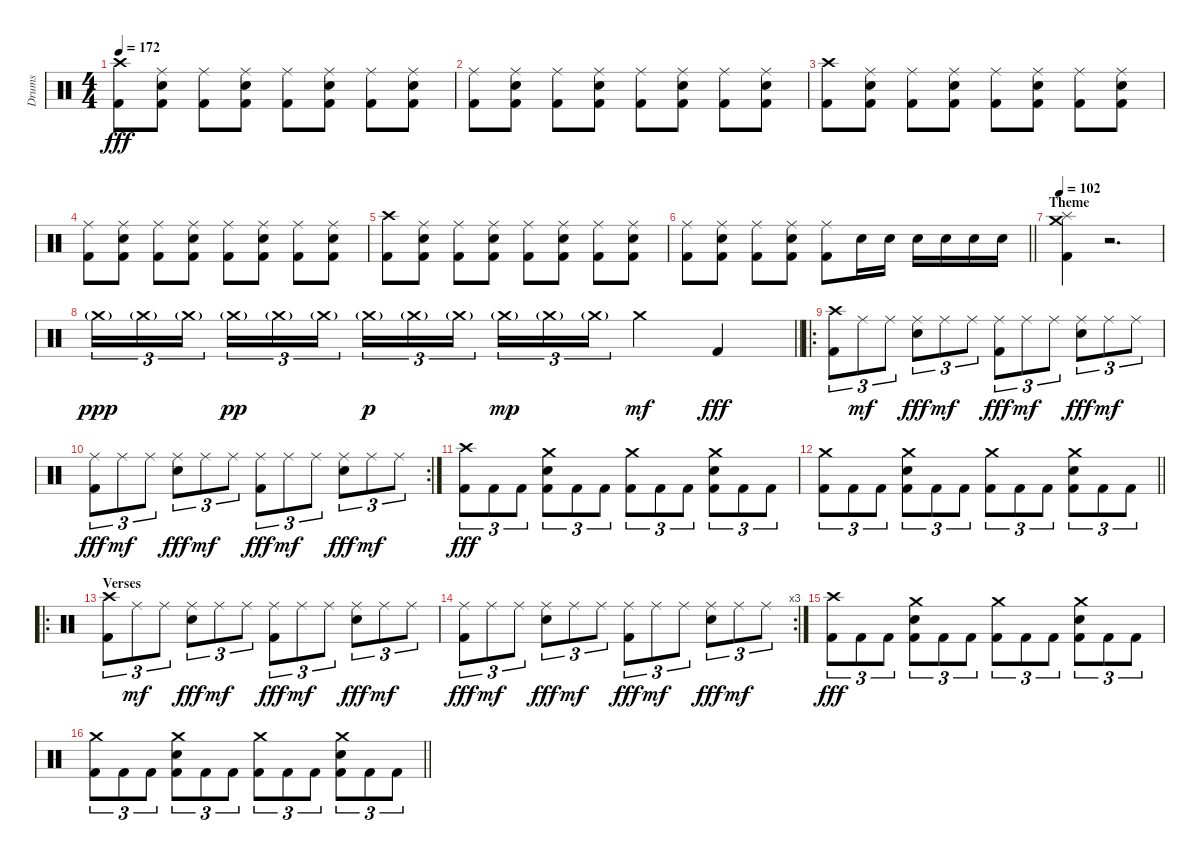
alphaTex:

\track ("Drums" "Drums") {instrument percussion}
\staff {score}
\articulation defaults
\ts (4 4)
\tempo 172
\clef neutral
\ks c
("Crash high (hit)" "Kick (hit) 2").8{dy fff} ("Ride (middle)" "Electric Snare (hit)" "Kick (hit) 2").8 ("Ride (middle)" "Kick (hit) 2").8 ("Ride (middle)" "Electric Snare (hit)" "Kick (hit) 2").8 ("Ride (middle)" "Kick (hit) 2").8 ("Ride (middle)" "Electric Snare (hit)" "Kick (hit) 2").8 ("Ride (middle)" "Kick (hit) 2").8 ("Ride (middle)" "Electric Snare (hit)" "Kick (hit) 2").8 |
("Ride (middle)" "Kick (hit) 2").8 ("Ride (middle)" "Electric Snare (hit)" "Kick (hit) 2").8 ("Ride (middle)" "Kick (hit) 2").8 ("Ride (middle)" "Electric Snare (hit)" "Kick (hit) 2").8 ("Ride (middle)" "Kick (hit) 2").8 ("Ride (middle)" "Electric Snare (hit)" "Kick (hit) 2").8 ("Ride (middle)" "Kick (hit) 2").8 ("Ride (middle)" "Electric Snare (hit)" "Kick (hit) 2").8 |
("Crash high (hit)" "Kick (hit) 2").8 ("Ride (middle)" "Electric Snare (hit)" "Kick (hit) 2").8 ("Ride (middle)" "Kick (hit) 2").8 ("Ride (middle)" "Electric Snare (hit)" "Kick (hit) 2").8 ("Ride (middle)" "Kick (hit) 2").8 ("Ride (middle)" "Electric Snare (hit)" "Kick (hit) 2").8 ("Ride (middle)" "Kick (hit) 2").8 ("Ride (middle)" "Electric Snare (hit)" "Kick (hit) 2").8 |
("Ride (middle)" "Kick (hit) 2").8 ("Ride (middle)" "Electric Snare (hit)" "Kick (hit) 2").8 ("Ride (middle)" "Kick (hit) 2").8 ("Ride (middle)" "Electric Snare (hit)" "Kick (hit) 2").8 ("Ride (middle)" "Kick (hit) 2").8 ("Ride (middle)" "Electric Snare (hit)" "Kick (hit) 2").8 ("Ride (middle)" "Kick (hit) 2").8 ("Ride (middle)" "Electric Snare (hit)" "Kick (hit) 2").8 |
("Crash high (hit)" "Kick (hit) 2").8 ("Ride (middle)" "Electric Snare (hit)" "Kick (hit) 2").8 ("Ride (middle)" "Kick (hit) 2").8 ("Ride (middle)" "Electric Snare (hit)" "Kick (hit) 2").8 ("Ride (middle)" "Kick (hit) 2").8 ("Ride (middle)" "Electric Snare (hit)" "Kick (hit) 2").8 ("Ride (middle)" "Kick (hit) 2").8 ("Ride (middle)" "Electric Snare (hit)" "Kick (hit) 2").8 |
\barLineRight lightlight
("Ride (middle)" "Kick (hit) 2").8 ("Ride (middle)" "Electric Snare (hit)" "Kick (hit) 2").8 ("Ride (middle)" "Kick (hit) 2").8 ("Ride (middle)" "Electric Snare (hit)" "Kick (hit) 2").8 ("Ride (middle)" "Kick (hit) 2").8 "Electric Snare (hit)".16 "Electric Snare (hit)".16 "Electric Snare (hit)".16 "Electric Snare (hit)".16 "Electric Snare (hit)".16 "Electric Snare (hit)".16 |
\section ("" "Theme")
\tempo 102
("Crash medium (hit)" "Splash (hit)" "Kick (hit) 2").4 r.2{d} |
\barLineRight lightlight "Crash medium (hit)"{g}.16{tu (3 2) dy ppp} "Crash medium (hit)"{g}.16{tu (3 2)} "Crash medium (hit)"{g}.16{tu (3 2) beam splitsecondary} "Crash medium (hit)"{g}.16{tu (3 2) dy pp} "Crash medium (hit)"{g}.16{tu (3 2)} "Crash medium (hit)"{g}.16{tu (3 2)} "Crash medium (hit)"{g}.16{tu (3 2) dy p} "Crash medium (hit)"{g}.16{tu (3 2)} "Crash medium (hit)"{g}.16{tu (3 2) beam splitsecondary} "Crash medium (hit)"{g}.16{tu (3 2) dy mp} "Crash medium (hit)"{g}.16{tu (3 2)} "Crash medium (hit)"{g}.16{tu (3 2)} "Crash medium (hit)".4{dy mf} "Kick (hit) 2".4{dy fff}
|
\ro
("Crash high (hit)" "Kick (hit) 2").8{tu (3 2)} "Ride (middle)".8{tu (3 2) dy mf} "Ride (middle)".8{tu (3 2)} ("Ride (middle)" "Electric Snare (hit)").8{tu (3 2) dy fff} "Ride (middle)".8{tu (3 2) dy mf} "Ride (middle)".8{tu (3 2)} ("Ride (middle)" "Kick (hit) 2").8{tu (3 2) dy fff} "Ride (middle)".8{tu (3 2) dy mf} "Ride (middle)".8{tu (3 2)} ("Ride (middle)" "Electric Snare (hit)").8{tu (3 2) dy fff} "Ride (middle)".8{tu (3 2) dy mf} "Ride (middle)".8{tu (3 2)} |
\rc 2
("Ride (middle)" "Kick (hit) 2").8{tu (3 2) dy fff} "Ride (middle)".8{tu (3 2) dy mf} "Ride (middle)".8{tu (3 2)} ("Ride (middle)" "Electric Snare (hit)").8{tu (3 2) dy fff} "Ride (middle)".8{tu (3 2) dy mf} "Ride (middle)".8{tu (3 2)} ("Ride (middle)" "Kick (hit) 2").8{tu (3 2) dy fff} "Ride (middle)".8{tu (3 2) dy mf} "Ride (middle)".8{tu (3 2)} ("Ride (middle)" "Electric Snare (hit)").8{tu (3 2) dy fff} "Ride (middle)".8{tu (3 2) dy mf} "Ride (middle)".8{tu (3 2)} |
("Crash high (hit)" "Kick (hit) 2").8{tu (3 2) dy fff} "Kick (hit) 2".8{tu (3 2)} "Kick (hit) 2".8{tu (3 2)} ("Crash medium (hit)" "Electric Snare (hit)" "Kick (hit) 2").8{tu (3 2)} "Kick (hit) 2".8{tu (3 2)} "Kick (hit) 2".8{tu (3 2)} ("Crash medium (hit)" "Kick (hit) 2").8{tu (3 2)} "Kick (hit) 2".8{tu (3 2)} "Kick (hit) 2".8{tu (3 2)} ("Crash medium (hit)" "Electric Snare (hit)" "Kick (hit) 2").8{tu (3 2)} "Kick (hit) 2".8{tu (3 2)} "Kick (hit) 2".8{tu (3 2)} |
\barLineRight lightlight
("Crash medium (hit)" "Kick (hit) 2").8{tu (3 2)} "Kick (hit) 2".8{tu (3 2)} "Kick (hit) 2".8{tu (3 2)} ("Crash medium (hit)" "Electric Snare (hit)" "Kick (hit) 2").8{tu (3 2)} "Kick (hit) 2".8{tu (3 2)} "Kick (hit) 2".8{tu (3 2)} ("Crash medium (hit)" "Kick (hit) 2").8{tu (3 2)} "Kick (hit) 2".8{tu (3 2)} "Kick (hit) 2".8{tu (3 2)} ("Crash medium (hit)" "Electric Snare (hit)" "Kick (hit) 2").8{tu (3 2)} "Kick (hit) 2".8{tu (3 2)} "Kick (hit) 2".8{tu (3 2)} |
\ro
\section ("" "Verses")
("Crash high (hit)" "Kick (hit) 2").8{tu (3 2)} "Ride (middle)".8{tu (3 2) dy mf} "Ride (middle)".8{tu (3 2)} ("Ride (middle)" "Electric Snare (hit)").8{tu (3 2) dy fff} "Ride (middle)".8{tu (3 2) dy mf} "Ride (middle)".8{tu (3 2)} ("Ride (middle)" "Kick (hit) 2").8{tu (3 2) dy fff} "Ride (middle)".8{tu (3 2) dy mf} "Ride (middle)".8{tu (3 2)} ("Ride (middle)" "Electric Snare (hit)").8{tu (3 2) dy fff} "Ride (middle)".8{tu (3 2) dy mf} "Ride (middle)".8{tu (3 2)} |
\rc 3
("Ride (middle)" "Kick (hit) 2").8{tu (3 2) dy fff} "Ride (middle)".8{tu (3 2) dy mf} "Ride (middle)".8{tu (3 2)} ("Ride (middle)" "Electric Snare (hit)").8{tu (3 2) dy fff} "Ride (middle)".8{tu (3 2) dy mf} "Ride (middle)".8{tu (3 2)} ("Ride (middle)" "Kick (hit) 2").8{tu (3 2) dy fff} "Ride (middle)".8{tu (3 2) dy mf} "Ride (middle)".8{tu (3 2)} ("Ride (middle)" "Electric Snare (hit)").8{tu (3 2) dy fff} "Ride (middle)".8{tu (3 2) dy mf} "Ride (middle)".8{tu (3 2)} |
("Crash high (hit)" "Kick (hit) 2").8{tu (3 2) dy fff} "Kick (hit) 2".8{tu (3 2)} "Kick (hit) 2".8{tu (3 2)} ("Crash medium (hit)" "Electric Snare (hit)" "Kick (hit) 2").8{tu (3 2)} "Kick (hit) 2".8{tu (3 2)} "Kick (hit) 2".8{tu (3 2)} ("Crash medium (hit)" "Kick (hit) 2").8{tu (3 2)} "Kick (hit) 2".8{tu (3 2)} "Kick (hit) 2".8{tu (3 2)} ("Crash medium (hit)" "Electric Snare (hit)" "Kick (hit) 2").8{tu (3 2)} "Kick (hit) 2".8{tu (3 2)} "Kick (hit) 2".8{tu (3 2)} |
\barLineRight lightlight
("Crash medium (hit)" "Kick (hit) 2").8{tu (3 2)} "Kick (hit) 2".8{tu (3 2)} "Kick (hit) 2".8{tu (3 2)} ("Crash medium (hit)" "Electric Snare (hit)" "Kick (hit) 2").8{tu (3 2)} "Kick (hit) 2".8{tu (3 2)} "Kick (hit) 2".8{tu (3 2)} ("Crash medium (hit)" "Kick (hit) 2").8{tu (3 2)} "Kick (hit) 2".8{tu (3 2)} "Kick (hit) 2".8{tu (3 2)} ("Crash medium (hit)" "Electric Snare (hit)" "Kick (hit) 2").8{tu (3 2)} "Kick (hit) 2".8{tu (3 2)} "Kick (hit) 2".8{tu (3 2)}
